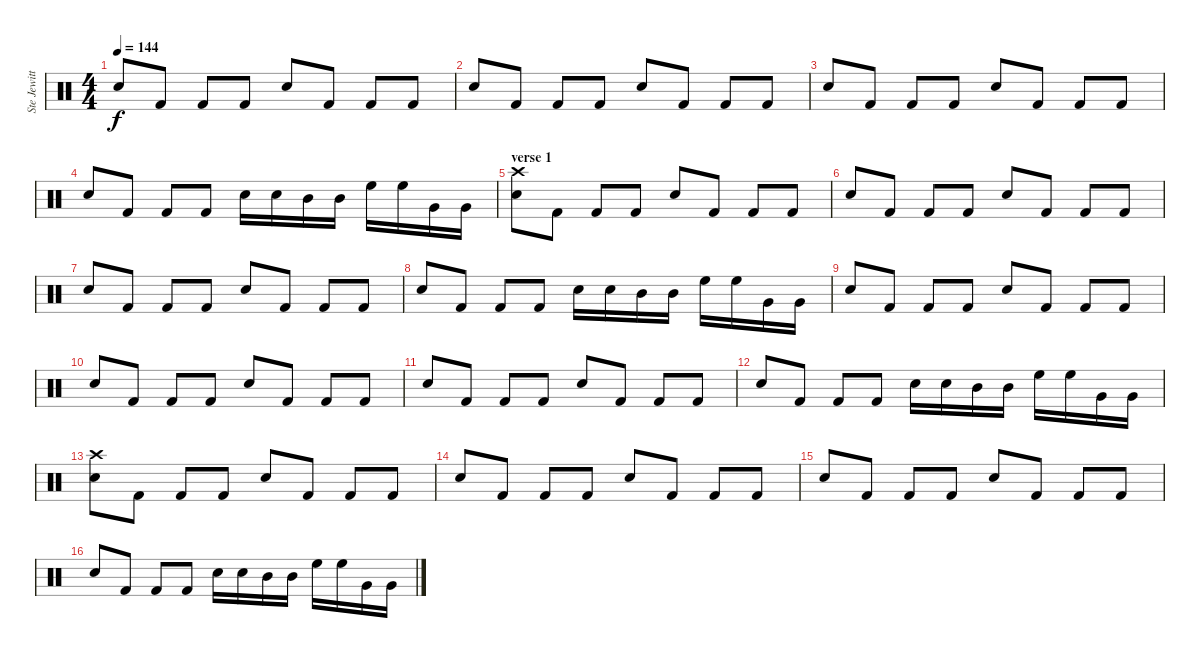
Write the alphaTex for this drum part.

\track ("Ste Jewitt (Drummer)" "Ste Jewitt") {instrument percussion}
\staff {score}
\articulation defaults
\ts (4 4)
\tempo 144
\clef neutral
\ks c "Snare (hit) 2".8{dy f} "Kick (hit) 2".8 "Kick (hit) 2".8 "Kick (hit) 2".8 "Snare (hit) 2".8 "Kick (hit) 2".8 "Kick (hit) 2".8 "Kick (hit) 2".8
|
"Snare (hit) 2".8 "Kick (hit) 2".8 "Kick (hit) 2".8 "Kick (hit) 2".8 "Snare (hit) 2".8 "Kick (hit) 2".8 "Kick (hit) 2".8 "Kick (hit) 2".8 |
"Snare (hit) 2".8 "Kick (hit) 2".8 "Kick (hit) 2".8 "Kick (hit) 2".8 "Snare (hit) 2".8 "Kick (hit) 2".8 "Kick (hit) 2".8 "Kick (hit) 2".8 |
"Snare (hit) 2".8 "Kick (hit) 2".8 "Kick (hit) 2".8 "Kick (hit) 2".8 "Snare (hit) 2".16 "Snare (hit) 2".16 "Mid Tom (hit)".16 "Mid Tom (hit)".16 "High Floor Tom (hit)".16 "High Floor Tom (hit)".16 "Very Low Tom (hit)".16 "Very Low Tom (hit)".16 |
\section ("" "verse 1")
("Crash high (hit)" "Snare (hit) 2").8 "Kick (hit) 2".8 "Kick (hit) 2".8 "Kick (hit) 2".8 "Snare (hit) 2".8 "Kick (hit) 2".8 "Kick (hit) 2".8 "Kick (hit) 2".8 |
"Snare (hit) 2".8 "Kick (hit) 2".8 "Kick (hit) 2".8 "Kick (hit) 2".8 "Snare (hit) 2".8 "Kick (hit) 2".8 "Kick (hit) 2".8 "Kick (hit) 2".8 |
"Snare (hit) 2".8 "Kick (hit) 2".8 "Kick (hit) 2".8 "Kick (hit) 2".8 "Snare (hit) 2".8 "Kick (hit) 2".8 "Kick (hit) 2".8 "Kick (hit) 2".8 |
"Snare (hit) 2".8 "Kick (hit) 2".8 "Kick (hit) 2".8 "Kick (hit) 2".8 "Snare (hit) 2".16 "Snare (hit) 2".16 "Mid Tom (hit)".16 "Mid Tom (hit)".16 "High Floor Tom (hit)".16 "High Floor Tom (hit)".16 "Very Low Tom (hit)".16 "Very Low Tom (hit)".16 |
"Snare (hit) 2".8 "Kick (hit) 2".8 "Kick (hit) 2".8 "Kick (hit) 2".8 "Snare (hit) 2".8 "Kick (hit) 2".8 "Kick (hit) 2".8 "Kick (hit) 2".8 |
"Snare (hit) 2".8 "Kick (hit) 2".8 "Kick (hit) 2".8 "Kick (hit) 2".8 "Snare (hit) 2".8 "Kick (hit) 2".8 "Kick (hit) 2".8 "Kick (hit) 2".8 |
"Snare (hit) 2".8 "Kick (hit) 2".8 "Kick (hit) 2".8 "Kick (hit) 2".8 "Snare (hit) 2".8 "Kick (hit) 2".8 "Kick (hit) 2".8 "Kick (hit) 2".8 |
"Snare (hit) 2".8 "Kick (hit) 2".8 "Kick (hit) 2".8 "Kick (hit) 2".8 "Snare (hit) 2".16 "Snare (hit) 2".16 "Mid Tom (hit)".16 "Mid Tom (hit)".16 "High Floor Tom (hit)".16 "High Floor Tom (hit)".16 "Very Low Tom (hit)".16 "Very Low Tom (hit)".16 |
("Crash high (hit)" "Snare (hit) 2").8 "Kick (hit) 2".8 "Kick (hit) 2".8 "Kick (hit) 2".8 "Snare (hit) 2".8 "Kick (hit) 2".8 "Kick (hit) 2".8 "Kick (hit) 2".8 |
"Snare (hit) 2".8 "Kick (hit) 2".8 "Kick (hit) 2".8 "Kick (hit) 2".8 "Snare (hit) 2".8 "Kick (hit) 2".8 "Kick (hit) 2".8 "Kick (hit) 2".8 |
"Snare (hit) 2".8 "Kick (hit) 2".8 "Kick (hit) 2".8 "Kick (hit) 2".8 "Snare (hit) 2".8 "Kick (hit) 2".8 "Kick (hit) 2".8 "Kick (hit) 2".8 |
"Snare (hit) 2".8 "Kick (hit) 2".8 "Kick (hit) 2".8 "Kick (hit) 2".8 "Snare (hit) 2".16 "Snare (hit) 2".16 "Mid Tom (hit)".16 "Mid Tom (hit)".16 "High Floor Tom (hit)".16 "High Floor Tom (hit)".16 "Very Low Tom (hit)".16 "Very Low Tom (hit)".16
